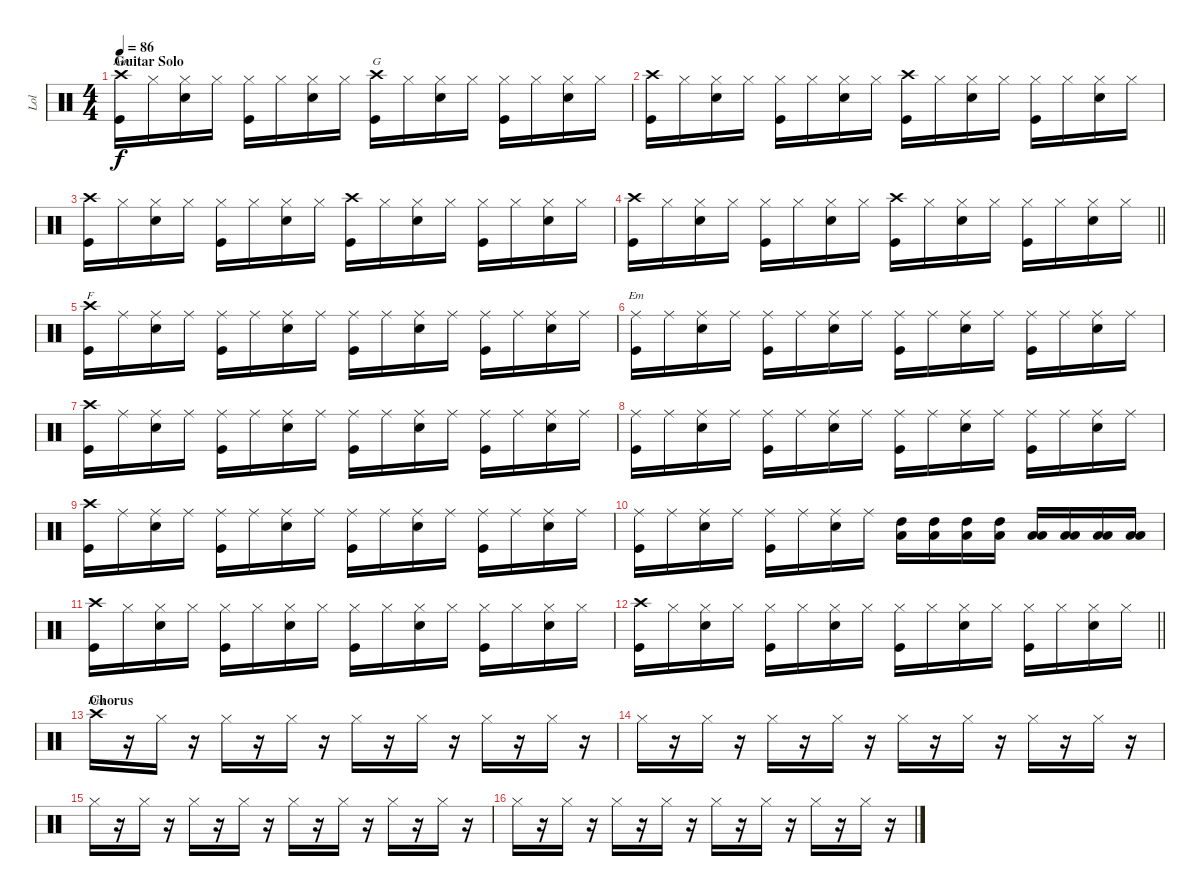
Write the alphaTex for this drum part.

\track ("Lol" "Lol") {instrument percussion}
\staff {score}
\articulation defaults
\chord ("Am")
\chord ("G")
\chord ("F")
\chord ("Em")
\chord ("Dm")
\ts (4 4)
\section ("" "Guitar Solo")
\tempo 86
\clef neutral
\ks c
("Crash high (hit)" "Kick (hit)").16{ch "Am" dy f} "Hi-Hat (closed)".16 ("Hi-Hat (closed)" "Snare (hit) 2").16 "Hi-Hat (closed)".16 ("Hi-Hat (closed)" "Kick (hit)").16 "Hi-Hat (closed)".16 ("Hi-Hat (closed)" "Snare (hit) 2").16 "Hi-Hat (closed)".16 ("Crash high (hit)" "Kick (hit)").16{ch "G"} "Hi-Hat (closed)".16 ("Hi-Hat (closed)" "Snare (hit) 2").16 "Hi-Hat (closed)".16 ("Hi-Hat (closed)" "Kick (hit)").16 "Hi-Hat (closed)".16 ("Hi-Hat (closed)" "Snare (hit) 2").16 "Hi-Hat (closed)".16 |
("Crash high (hit)" "Kick (hit)").16 "Hi-Hat (closed)".16 ("Hi-Hat (closed)" "Snare (hit) 2").16 "Hi-Hat (closed)".16 ("Hi-Hat (closed)" "Kick (hit)").16 "Hi-Hat (closed)".16 ("Hi-Hat (closed)" "Snare (hit) 2").16 "Hi-Hat (closed)".16 ("Crash high (hit)" "Kick (hit)").16 "Hi-Hat (closed)".16 ("Hi-Hat (closed)" "Snare (hit) 2").16 "Hi-Hat (closed)".16 ("Hi-Hat (closed)" "Kick (hit)").16 "Hi-Hat (closed)".16 ("Hi-Hat (closed)" "Snare (hit) 2").16 "Hi-Hat (closed)".16 |
("Crash high (hit)" "Kick (hit)").16 "Hi-Hat (closed)".16 ("Hi-Hat (closed)" "Snare (hit) 2").16 "Hi-Hat (closed)".16 ("Hi-Hat (closed)" "Kick (hit)").16 "Hi-Hat (closed)".16 ("Hi-Hat (closed)" "Snare (hit) 2").16 "Hi-Hat (closed)".16 ("Crash high (hit)" "Kick (hit)").16 "Hi-Hat (closed)".16 ("Hi-Hat (closed)" "Snare (hit) 2").16 "Hi-Hat (closed)".16 ("Hi-Hat (closed)" "Kick (hit)").16 "Hi-Hat (closed)".16 ("Hi-Hat (closed)" "Snare (hit) 2").16 "Hi-Hat (closed)".16 |
\barLineRight lightlight
("Crash high (hit)" "Kick (hit)").16 "Hi-Hat (closed)".16 ("Hi-Hat (closed)" "Snare (hit) 2").16 "Hi-Hat (closed)".16 ("Hi-Hat (closed)" "Kick (hit)").16 "Hi-Hat (closed)".16 ("Hi-Hat (closed)" "Snare (hit) 2").16 "Hi-Hat (closed)".16 ("Crash high (hit)" "Kick (hit)").16 "Hi-Hat (closed)".16 ("Hi-Hat (closed)" "Snare (hit) 2").16 "Hi-Hat (closed)".16 ("Hi-Hat (closed)" "Kick (hit)").16 "Hi-Hat (closed)".16 ("Hi-Hat (closed)" "Snare (hit) 2").16 "Hi-Hat (closed)".16 |
("Crash high (hit)" "Kick (hit)").16{ch "F"} "Ride (middle)".16 ("Ride (middle)" "Snare (hit) 2").16 "Ride (middle)".16 ("Ride (middle)" "Kick (hit)").16 "Ride (middle)".16 ("Ride (middle)" "Snare (hit) 2").16 "Ride (middle)".16 ("Ride (middle)" "Kick (hit)").16 "Ride (middle)".16 ("Ride (middle)" "Snare (hit) 2").16 "Ride (middle)".16 ("Ride (middle)" "Kick (hit)").16 "Ride (middle)".16 ("Ride (middle)" "Snare (hit) 2").16 "Ride (middle)".16 |
("Ride (middle)" "Kick (hit)").16{ch "Em"} "Ride (middle)".16 ("Ride (middle)" "Snare (hit) 2").16 "Ride (middle)".16 ("Ride (middle)" "Kick (hit)").16 "Ride (middle)".16 ("Ride (middle)" "Snare (hit) 2").16 "Ride (middle)".16 ("Ride (middle)" "Kick (hit)").16 "Ride (middle)".16 ("Ride (middle)" "Snare (hit) 2").16 "Ride (middle)".16 ("Ride (middle)" "Kick (hit)").16 "Ride (middle)".16 ("Ride (middle)" "Snare (hit) 2").16 "Ride (middle)".16 |
("Crash high (hit)" "Kick (hit)").16 "Ride (middle)".16 ("Ride (middle)" "Snare (hit) 2").16 "Ride (middle)".16 ("Ride (middle)" "Kick (hit)").16 "Ride (middle)".16 ("Ride (middle)" "Snare (hit) 2").16 "Ride (middle)".16 ("Ride (middle)" "Kick (hit)").16 "Ride (middle)".16 ("Ride (middle)" "Snare (hit) 2").16 "Ride (middle)".16 ("Ride (middle)" "Kick (hit)").16 "Ride (middle)".16 ("Ride (middle)" "Snare (hit) 2").16 "Ride (middle)".16 |
("Ride (middle)" "Kick (hit)").16 "Ride (middle)".16 ("Ride (middle)" "Snare (hit) 2").16 "Ride (middle)".16 ("Ride (middle)" "Kick (hit)").16 "Ride (middle)".16 ("Ride (middle)" "Snare (hit) 2").16 "Ride (middle)".16 ("Ride (middle)" "Kick (hit)").16 "Ride (middle)".16 ("Ride (middle)" "Snare (hit) 2").16 "Ride (middle)".16 ("Ride (middle)" "Kick (hit)").16 "Ride (middle)".16 ("Ride (middle)" "Snare (hit) 2").16 "Ride (middle)".16 |
("Crash high (hit)" "Kick (hit)").16 "Ride (middle)".16 ("Ride (middle)" "Snare (hit) 2").16 "Ride (middle)".16 ("Ride (middle)" "Kick (hit)").16 "Ride (middle)".16 ("Ride (middle)" "Snare (hit) 2").16 "Ride (middle)".16 ("Ride (middle)" "Kick (hit)").16 "Ride (middle)".16 ("Ride (middle)" "Snare (hit) 2").16 "Ride (middle)".16 ("Ride (middle)" "Kick (hit)").16 "Ride (middle)".16 ("Ride (middle)" "Snare (hit) 2").16 "Ride (middle)".16 |
("Ride (middle)" "Kick (hit)").16 "Ride (middle)".16 ("Ride (middle)" "Snare (hit) 2").16 "Ride (middle)".16 ("Ride (middle)" "Kick (hit)").16 "Ride (middle)".16 ("Ride (middle)" "Snare (hit) 2").16 "Ride (middle)".16 ("High Tom (hit)" "Low Floor Tom (hit)").16 ("High Tom (hit)" "Low Floor Tom (hit)").16 ("High Tom (hit)" "Low Floor Tom (hit)").16 ("High Tom (hit)" "Low Floor Tom (hit)").16 ("Low Tom (hit)" "Low Floor Tom (hit)").16 ("Low Tom (hit)" "Low Floor Tom (hit)").16 ("Low Tom (hit)" "Low Floor Tom (hit)").16 ("Low Tom (hit)" "Low Floor Tom (hit)").16 |
("Crash high (hit)" "Kick (hit)").16 "Hi-Hat (closed)".16 ("Hi-Hat (closed)" "Snare (hit) 2").16 "Hi-Hat (closed)".16 ("Hi-Hat (closed)" "Kick (hit)").16 "Hi-Hat (closed)".16 ("Hi-Hat (closed)" "Snare (hit) 2").16 "Hi-Hat (closed)".16 ("Hi-Hat (closed)" "Kick (hit)").16 "Hi-Hat (closed)".16 ("Hi-Hat (closed)" "Snare (hit) 2").16 "Hi-Hat (closed)".16 ("Hi-Hat (closed)" "Kick (hit)").16 "Hi-Hat (closed)".16 ("Hi-Hat (closed)" "Snare (hit) 2").16 "Hi-Hat (closed)".16 |
\barLineRight lightlight
("Crash high (hit)" "Kick (hit)").16 "Hi-Hat (closed)".16 ("Hi-Hat (closed)" "Snare (hit) 2").16 "Hi-Hat (closed)".16 ("Hi-Hat (closed)" "Kick (hit)").16 "Hi-Hat (closed)".16 ("Hi-Hat (closed)" "Snare (hit) 2").16 "Hi-Hat (closed)".16 ("Hi-Hat (closed)" "Kick (hit)").16 "Hi-Hat (closed)".16 ("Hi-Hat (closed)" "Snare (hit) 2").16 "Hi-Hat (closed)".16 ("Hi-Hat (closed)" "Kick (hit)").16 "Hi-Hat (closed)".16 ("Hi-Hat (closed)" "Snare (hit) 2").16 "Hi-Hat (closed)".16 |
\section ("" "Chorus")
"Crash high (hit)".16{ch "Dm"} r.16 "Hi-Hat (closed)".16{volume 10} r.16 "Hi-Hat (closed)".16 r.16 "Hi-Hat (closed)".16 r.16 "Hi-Hat (closed)".16 r.16 "Hi-Hat (closed)".16 r.16 "Hi-Hat (closed)".16 r.16 "Hi-Hat (closed)".16 r.16 |
"Hi-Hat (closed)".16 r.16 "Hi-Hat (closed)".16 r.16 "Hi-Hat (closed)".16 r.16 "Hi-Hat (closed)".16 r.16 "Hi-Hat (closed)".16 r.16 "Hi-Hat (closed)".16 r.16 "Hi-Hat (closed)".16 r.16 "Hi-Hat (closed)".16 r.16 |
"Hi-Hat (closed)".16 r.16 "Hi-Hat (closed)".16 r.16 "Hi-Hat (closed)".16 r.16 "Hi-Hat (closed)".16 r.16 "Hi-Hat (closed)".16 r.16 "Hi-Hat (closed)".16 r.16 "Hi-Hat (closed)".16 r.16 "Hi-Hat (closed)".16 r.16 |
"Hi-Hat (closed)".16 r.16 "Hi-Hat (closed)".16 r.16 "Hi-Hat (closed)".16 r.16 "Hi-Hat (closed)".16 r.16 "Hi-Hat (closed)".16 r.16 "Hi-Hat (closed)".16 r.16 "Hi-Hat (closed)".16 r.16 "Hi-Hat (closed)".16 r.16
